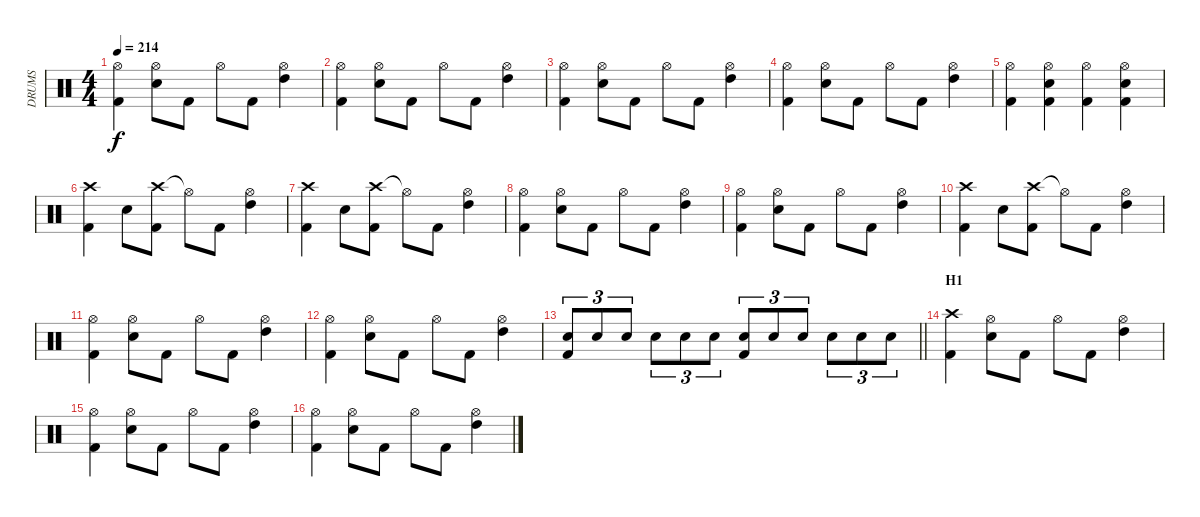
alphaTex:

\track ("DRUMS" "DRUMS") {instrument percussion}
\staff {score}
\articulation defaults
\ts (4 4)
\tempo 214
\clef neutral
\ks c
("Hi-Hat (open)" "Kick (hit) 2").4{dy f} ("Hi-Hat (open)" "Snare (hit) 2").8 "Kick (hit) 2".8 "Hi-Hat (open)".8 "Kick (hit) 2".8 ("Hi-Hat (open)" "High Tom (hit)").4 |
("Hi-Hat (open)" "Kick (hit) 2").4 ("Hi-Hat (open)" "Snare (hit) 2").8 "Kick (hit) 2".8 "Hi-Hat (open)".8 "Kick (hit) 2".8 ("Hi-Hat (open)" "High Tom (hit)").4 |
("Hi-Hat (open)" "Kick (hit) 2").4 ("Hi-Hat (open)" "Snare (hit) 2").8 "Kick (hit) 2".8 "Hi-Hat (open)".8 "Kick (hit) 2".8 ("Hi-Hat (open)" "High Tom (hit)").4 |
("Hi-Hat (open)" "Kick (hit) 2").4 ("Hi-Hat (open)" "Snare (hit) 2").8 "Kick (hit) 2".8 "Hi-Hat (open)".8 "Kick (hit) 2".8 ("Hi-Hat (open)" "High Tom (hit)").4 |
("Hi-Hat (open)" "Kick (hit) 2").4 ("Hi-Hat (open)" "Kick (hit) 2" "Snare (hit) 2").4 ("Hi-Hat (open)" "Kick (hit) 2").4 ("Hi-Hat (open)" "Kick (hit) 2" "Snare (hit) 2").4 |
("Crash high (hit)" "Kick (hit) 2").4 "Snare (hit) 2".8 ("Crash high (hit)" "Kick (hit) 2").8 "Hi-Hat (open)"{t}.8 "Kick (hit) 2".8 ("Hi-Hat (open)" "High Tom (hit)").4 |
("Crash high (hit)" "Kick (hit) 2").4 "Snare (hit) 2".8 ("Crash high (hit)" "Kick (hit) 2").8 "Hi-Hat (open)"{t}.8 "Kick (hit) 2".8 ("Hi-Hat (open)" "High Tom (hit)").4 |
("Hi-Hat (open)" "Kick (hit) 2").4 ("Hi-Hat (open)" "Snare (hit) 2").8 "Kick (hit) 2".8 "Hi-Hat (open)".8 "Kick (hit) 2".8 ("Hi-Hat (open)" "High Tom (hit)").4 |
("Hi-Hat (open)" "Kick (hit) 2").4 ("Hi-Hat (open)" "Snare (hit) 2").8 "Kick (hit) 2".8 "Hi-Hat (open)".8 "Kick (hit) 2".8 ("Hi-Hat (open)" "High Tom (hit)").4 |
("Crash high (hit)" "Kick (hit) 2").4 "Snare (hit) 2".8 ("Crash high (hit)" "Kick (hit) 2").8 "Hi-Hat (open)"{t}.8 "Kick (hit) 2".8 ("Hi-Hat (open)" "High Tom (hit)").4 |
("Hi-Hat (open)" "Kick (hit) 2").4 ("Hi-Hat (open)" "Snare (hit) 2").8 "Kick (hit) 2".8 "Hi-Hat (open)".8 "Kick (hit) 2".8 ("Hi-Hat (open)" "High Tom (hit)").4 |
("Hi-Hat (open)" "Kick (hit) 2").4 ("Hi-Hat (open)" "Snare (hit) 2").8 "Kick (hit) 2".8 "Hi-Hat (open)".8 "Kick (hit) 2".8 ("Hi-Hat (open)" "High Tom (hit)").4 |
\barLineRight lightlight
("Kick (hit) 2" "Snare (hit) 2").8{tu (3 2)} "Snare (hit) 2".8{tu (3 2)} "Snare (hit) 2".8{tu (3 2)} "Snare (hit) 2".8{tu (3 2)} "Snare (hit) 2".8{tu (3 2)} "Snare (hit) 2".8{tu (3 2)} ("Kick (hit) 2" "Snare (hit) 2").8{tu (3 2)} "Snare (hit) 2".8{tu (3 2)} "Snare (hit) 2".8{tu (3 2)} "Snare (hit) 2".8{tu (3 2)} "Snare (hit) 2".8{tu (3 2)} "Snare (hit) 2".8{tu (3 2)} |
\section ("" "H1")
("Crash high (hit)" "Kick (hit) 2").4 ("Hi-Hat (open)" "Snare (hit) 2").8 "Kick (hit) 2".8 "Hi-Hat (open)".8 "Kick (hit) 2".8 ("Hi-Hat (open)" "High Tom (hit)").4 |
("Hi-Hat (open)" "Kick (hit) 2").4 ("Hi-Hat (open)" "Snare (hit) 2").8 "Kick (hit) 2".8 "Hi-Hat (open)".8 "Kick (hit) 2".8 ("Hi-Hat (open)" "High Tom (hit)").4 |
("Hi-Hat (open)" "Kick (hit) 2").4 ("Hi-Hat (open)" "Snare (hit) 2").8 "Kick (hit) 2".8 "Hi-Hat (open)".8 "Kick (hit) 2".8 ("Hi-Hat (open)" "High Tom (hit)").4
